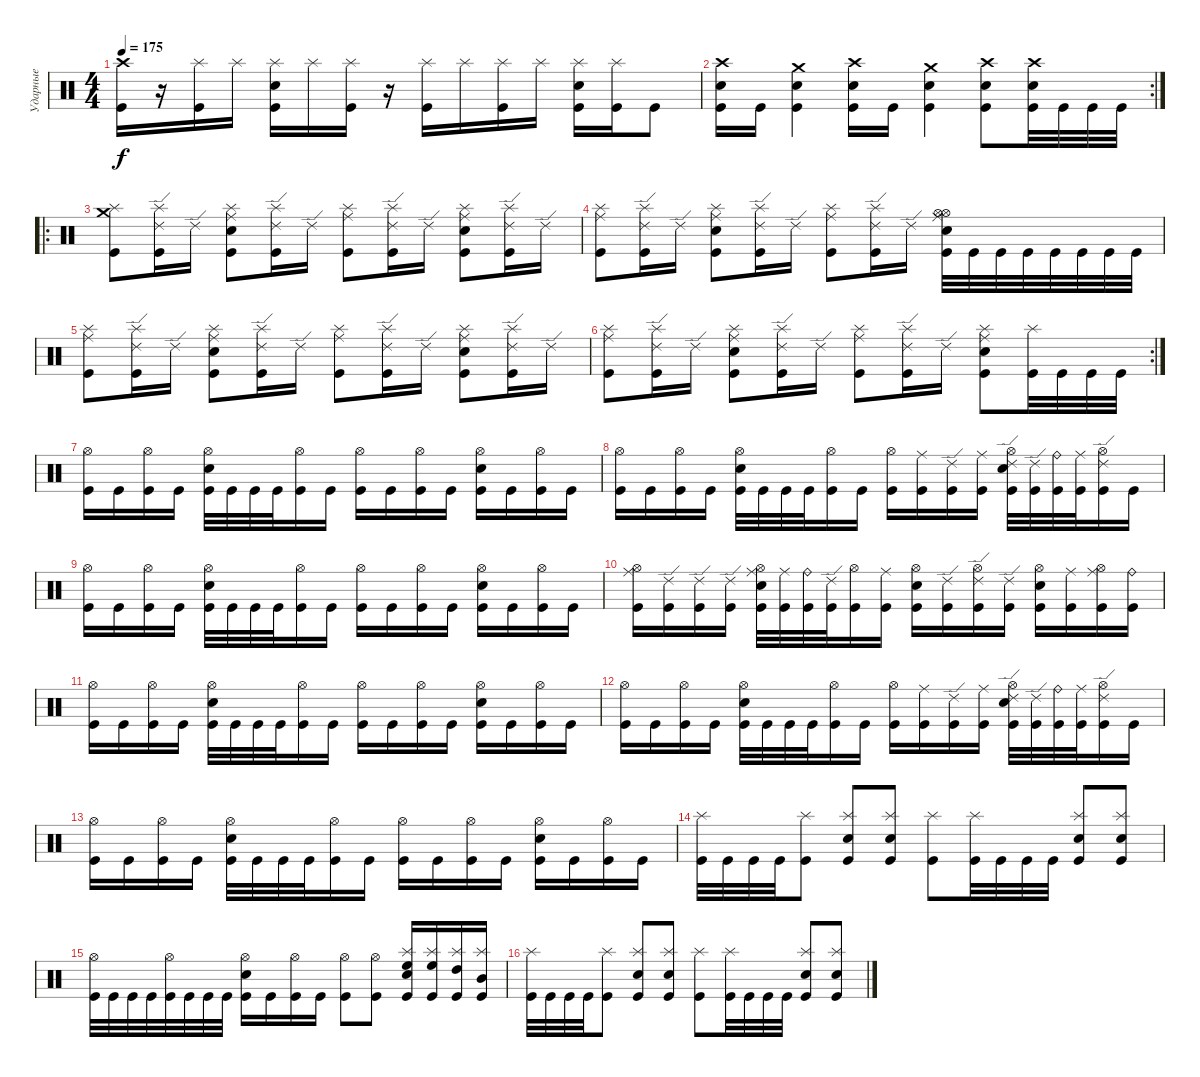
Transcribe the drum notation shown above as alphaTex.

\track ("Ударные" "Ударные") {instrument percussion}
\staff {score}
\articulation defaults
\ts (4 4)
\tempo 175
\clef neutral
\ks c
("Crash high (hit)" "Kick (hit)").16{dy f} r.16 ("Splash (hit)" "Kick (hit)").16 "Splash (hit)".16 ("Snare (hit) 2" "Splash (hit)" "Kick (hit)").16 "Splash (hit)".16 ("Splash (hit)" "Kick (hit)").16 r.16 ("Splash (hit)" "Kick (hit)").16 "Splash (hit)".16 ("Splash (hit)" "Kick (hit)").16 "Splash (hit)".16 ("Snare (hit) 2" "Splash (hit)" "Kick (hit)").16 ("Splash (hit)" "Kick (hit)").16 "Kick (hit)".8 |
\rc 2
("Crash high (hit)" "Electric Snare (hit)" "Kick (hit)").16 "Kick (hit)".16 ("Crash medium (hit)" "Electric Snare (hit)" "Kick (hit)").4 ("Crash high (hit)" "Electric Snare (hit)" "Kick (hit)").16 "Kick (hit)".16 ("Crash medium (hit)" "Electric Snare (hit)" "Kick (hit)").4 ("Crash high (hit)" "Electric Snare (hit)" "Kick (hit)").8 ("Crash high (hit)" "Electric Snare (hit)" "Kick (hit)").32 "Kick (hit)".32 "Kick (hit)".32 "Kick (hit)".32 |
\ro
("Crash medium (hit)" "Splash (hit)" "Kick (hit)").8 ("Ride (edge) 2" "Splash (hit)" "Kick (hit)").16 "Ride (edge) 2".16 ("Snare (hit) 2" "Ride (middle)" "Splash (hit)" "Kick (hit)").8 ("Ride (edge) 2" "Splash (hit)" "Kick (hit)").16 "Ride (edge) 2".16 ("Ride (middle)" "Splash (hit)" "Kick (hit)").8 ("Ride (edge) 2" "Splash (hit)" "Kick (hit)").16 "Ride (edge) 2".16 ("Snare (hit) 2" "Ride (middle)" "Splash (hit)" "Kick (hit)").8 ("Ride (edge) 2" "Splash (hit)" "Kick (hit)").16 "Ride (edge) 2".16 |
("Ride (middle)" "Splash (hit)" "Kick (hit)").8 ("Ride (edge) 2" "Splash (hit)" "Kick (hit)").16 "Ride (edge) 2".16 ("Snare (hit) 2" "Ride (middle)" "Splash (hit)" "Kick (hit)").8 ("Ride (edge) 2" "Splash (hit)" "Kick (hit)").16 "Ride (edge) 2".16 ("Ride (middle)" "Splash (hit)" "Kick (hit)").8 ("Ride (edge) 2" "Splash (hit)" "Kick (hit)").16 "Ride (edge) 2".16 ("Snare (hit) 2" "Ride (middle)" "Hi-Hat (open)" "Hi-Hat (open)" "Kick (hit)").32 "Kick (hit)".32 "Kick (hit)".32 "Kick (hit)".32 "Kick (hit)".32 "Kick (hit)".32 "Kick (hit)".32 "Kick (hit)".32 |
("Ride (middle)" "Splash (hit)" "Kick (hit)").8 ("Ride (edge) 2" "Splash (hit)" "Kick (hit)").16 "Ride (edge) 2".16 ("Snare (hit) 2" "Ride (middle)" "Splash (hit)" "Kick (hit)").8 ("Ride (edge) 2" "Splash (hit)" "Kick (hit)").16 "Ride (edge) 2".16 ("Ride (middle)" "Splash (hit)" "Kick (hit)").8 ("Ride (edge) 2" "Splash (hit)" "Kick (hit)").16 "Ride (edge) 2".16 ("Snare (hit) 2" "Ride (middle)" "Splash (hit)" "Kick (hit)").8 ("Ride (edge) 2" "Splash (hit)" "Kick (hit)").16 "Ride (edge) 2".16 |
\rc 2
("Ride (middle)" "Splash (hit)" "Kick (hit)").8 ("Ride (edge) 2" "Splash (hit)" "Kick (hit)").16 "Ride (edge) 2".16 ("Snare (hit) 2" "Ride (middle)" "Splash (hit)" "Kick (hit)").8 ("Ride (edge) 2" "Splash (hit)" "Kick (hit)").16 "Ride (edge) 2".16 ("Ride (middle)" "Splash (hit)" "Kick (hit)").8 ("Ride (edge) 2" "Splash (hit)" "Kick (hit)").16 "Ride (edge) 2".16 ("Snare (hit) 2" "Ride (middle)" "Splash (hit)" "Kick (hit)").8 ("Splash (hit)" "Kick (hit)").32 "Kick (hit)".32 "Kick (hit)".32 "Kick (hit)".32 |
("Hi-Hat (open)" "Kick (hit)").16 "Kick (hit)".16 ("Hi-Hat (open)" "Kick (hit)").16 "Kick (hit)".16 ("Snare (hit) 2" "Hi-Hat (open)" "Kick (hit)").32 "Kick (hit)".32 "Kick (hit)".32 "Kick (hit)".32 ("Hi-Hat (open)" "Kick (hit)").16 "Kick (hit)".16 ("Hi-Hat (open)" "Kick (hit)").16 "Kick (hit)".16 ("Hi-Hat (open)" "Kick (hit)").16 "Kick (hit)".16 ("Snare (hit) 2" "Hi-Hat (open)" "Kick (hit)").16 "Kick (hit)".16 ("Hi-Hat (open)" "Kick (hit)").16 "Kick (hit)".16 |
("Hi-Hat (open)" "Kick (hit)").16 "Kick (hit)".16 ("Hi-Hat (open)" "Kick (hit)").16 "Kick (hit)".16 ("Snare (hit) 2" "Hi-Hat (open)" "Kick (hit)").32 "Kick (hit)".32 "Kick (hit)".32 "Kick (hit)".32 ("Hi-Hat (open)" "Kick (hit)").16 "Kick (hit)".16 ("Hi-Hat (open)" "Kick (hit)").16 ("Ride (middle)" "Kick (hit)").16 ("Ride (edge) 2" "Kick (hit)").16 ("Ride (middle)" "Kick (hit)").16 ("Snare (hit) 2" "Hi-Hat (open)" "Ride (edge) 2" "Kick (hit)").32 ("Ride (edge) 2" "Kick (hit)").32 ("Ride (bell)" "Kick (hit)").32 ("Ride (middle)" "Kick (hit)").32 ("Hi-Hat (open)" "Ride (edge) 2" "Kick (hit)").16 "Kick (hit)".16 |
("Hi-Hat (open)" "Kick (hit)").16 "Kick (hit)".16 ("Hi-Hat (open)" "Kick (hit)").16 "Kick (hit)".16 ("Snare (hit) 2" "Hi-Hat (open)" "Kick (hit)").32 "Kick (hit)".32 "Kick (hit)".32 "Kick (hit)".32 ("Hi-Hat (open)" "Kick (hit)").16 "Kick (hit)".16 ("Hi-Hat (open)" "Kick (hit)").16 "Kick (hit)".16 ("Hi-Hat (open)" "Kick (hit)").16 "Kick (hit)".16 ("Snare (hit) 2" "Hi-Hat (open)" "Kick (hit)").16 "Kick (hit)".16 ("Hi-Hat (open)" "Kick (hit)").16 "Kick (hit)".16 |
("Hi-Hat (open)" "Ride (middle)" "Kick (hit)").16 ("Ride (edge) 2" "Kick (hit)").16 ("Ride (edge) 2" "Kick (hit)").16 ("Ride (edge) 2" "Kick (hit)").16 ("Snare (hit) 2" "Hi-Hat (open)" "Ride (middle)" "Kick (hit)").32 ("Ride (middle)" "Kick (hit)").32 ("Ride (bell)" "Kick (hit)").32 ("Ride (edge) 2" "Kick (hit)").32 ("Hi-Hat (open)" "Kick (hit)").16 ("Ride (middle)" "Kick (hit)").16 ("Hi-Hat (open)" "Snare (hit)" "Kick (hit)").16 ("Ride (edge) 2" "Kick (hit)").16 ("Hi-Hat (open)" "Ride (edge) 2" "Kick (hit)").16 ("Ride (edge) 2" "Kick (hit)").16 ("Snare (hit) 2" "Hi-Hat (open)" "Kick (hit)").16 ("Ride (middle)" "Kick (hit)").16 ("Hi-Hat (open)" "Ride (middle)" "Kick (hit)").16 ("Ride (bell)" "Kick (hit)").16 |
("Hi-Hat (open)" "Kick (hit)").16 "Kick (hit)".16 ("Hi-Hat (open)" "Kick (hit)").16 "Kick (hit)".16 ("Snare (hit) 2" "Hi-Hat (open)" "Kick (hit)").32 "Kick (hit)".32 "Kick (hit)".32 "Kick (hit)".32 ("Hi-Hat (open)" "Kick (hit)").16 "Kick (hit)".16 ("Hi-Hat (open)" "Kick (hit)").16 "Kick (hit)".16 ("Hi-Hat (open)" "Kick (hit)").16 "Kick (hit)".16 ("Snare (hit) 2" "Hi-Hat (open)" "Kick (hit)").16 "Kick (hit)".16 ("Hi-Hat (open)" "Kick (hit)").16 "Kick (hit)".16 |
("Hi-Hat (open)" "Kick (hit)").16 "Kick (hit)".16 ("Hi-Hat (open)" "Kick (hit)").16 "Kick (hit)".16 ("Snare (hit) 2" "Hi-Hat (open)" "Kick (hit)").32 "Kick (hit)".32 "Kick (hit)".32 "Kick (hit)".32 ("Hi-Hat (open)" "Kick (hit)").16 "Kick (hit)".16 ("Hi-Hat (open)" "Kick (hit)").16 ("Ride (middle)" "Kick (hit)").16 ("Ride (edge) 2" "Kick (hit)").16 ("Ride (middle)" "Kick (hit)").16 ("Snare (hit) 2" "Hi-Hat (open)" "Ride (edge) 2" "Kick (hit)").32 ("Ride (edge) 2" "Kick (hit)").32 ("Ride (bell)" "Kick (hit)").32 ("Ride (middle)" "Kick (hit)").32 ("Hi-Hat (open)" "Ride (edge) 2" "Kick (hit)").16 "Kick (hit)".16 |
("Hi-Hat (open)" "Kick (hit)").16 "Kick (hit)".16 ("Hi-Hat (open)" "Kick (hit)").16 "Kick (hit)".16 ("Snare (hit) 2" "Hi-Hat (open)" "Kick (hit)").32 "Kick (hit)".32 "Kick (hit)".32 "Kick (hit)".32 ("Hi-Hat (open)" "Kick (hit)").16 "Kick (hit)".16 ("Hi-Hat (open)" "Kick (hit)").16 "Kick (hit)".16 ("Hi-Hat (open)" "Kick (hit)").16 "Kick (hit)".16 ("Snare (hit) 2" "Hi-Hat (open)" "Kick (hit)").16 "Kick (hit)".16 ("Hi-Hat (open)" "Kick (hit)").16 "Kick (hit)".16 |
("Splash (hit)" "Kick (hit)").32 "Kick (hit)".32 "Kick (hit)".32 "Kick (hit)".32 ("Splash (hit)" "Kick (hit)").8 ("Snare (hit) 2" "Splash (hit)" "Kick (hit)").8 ("Snare (hit) 2" "Splash (hit)" "Kick (hit)").8 ("Splash (hit)" "Kick (hit)").8 ("Splash (hit)" "Kick (hit)").32 "Kick (hit)".32 "Kick (hit)".32 "Kick (hit)".32 ("Snare (hit) 2" "Splash (hit)" "Kick (hit)").8 ("Snare (hit) 2" "Splash (hit)" "Kick (hit)").8 |
("Hi-Hat (open)" "Kick (hit)").32 "Kick (hit)".32 "Kick (hit)".32 "Kick (hit)".32 ("Hi-Hat (open)" "Kick (hit)").32 "Kick (hit)".32 "Kick (hit)".32 "Kick (hit)".32 ("Snare (hit) 2" "Hi-Hat (open)" "Kick (hit)").16 "Kick (hit)".16 ("Hi-Hat (open)" "Kick (hit)").16 "Kick (hit)".16 ("Hi-Hat (open)" "Kick (hit)").8 ("Hi-Hat (open)" "Kick (hit)").8 ("Snare (hit) 2" "Splash (hit)" "High Floor Tom (hit)" "Kick (hit)").16 ("Splash (hit)" "High Floor Tom (hit)" "Kick (hit)").16 ("Splash (hit)" "High Tom (hit)" "Kick (hit)").16 ("Splash (hit)" "Mid Tom (hit)" "Kick (hit)").16 |
("Splash (hit)" "Kick (hit)").32 "Kick (hit)".32 "Kick (hit)".32 "Kick (hit)".32 ("Splash (hit)" "Kick (hit)").8 ("Snare (hit) 2" "Splash (hit)" "Kick (hit)").8 ("Snare (hit) 2" "Splash (hit)" "Kick (hit)").8 ("Splash (hit)" "Kick (hit)").8 ("Splash (hit)" "Kick (hit)").32 "Kick (hit)".32 "Kick (hit)".32 "Kick (hit)".32 ("Snare (hit) 2" "Splash (hit)" "Kick (hit)").8 ("Snare (hit) 2" "Splash (hit)" "Kick (hit)").8
